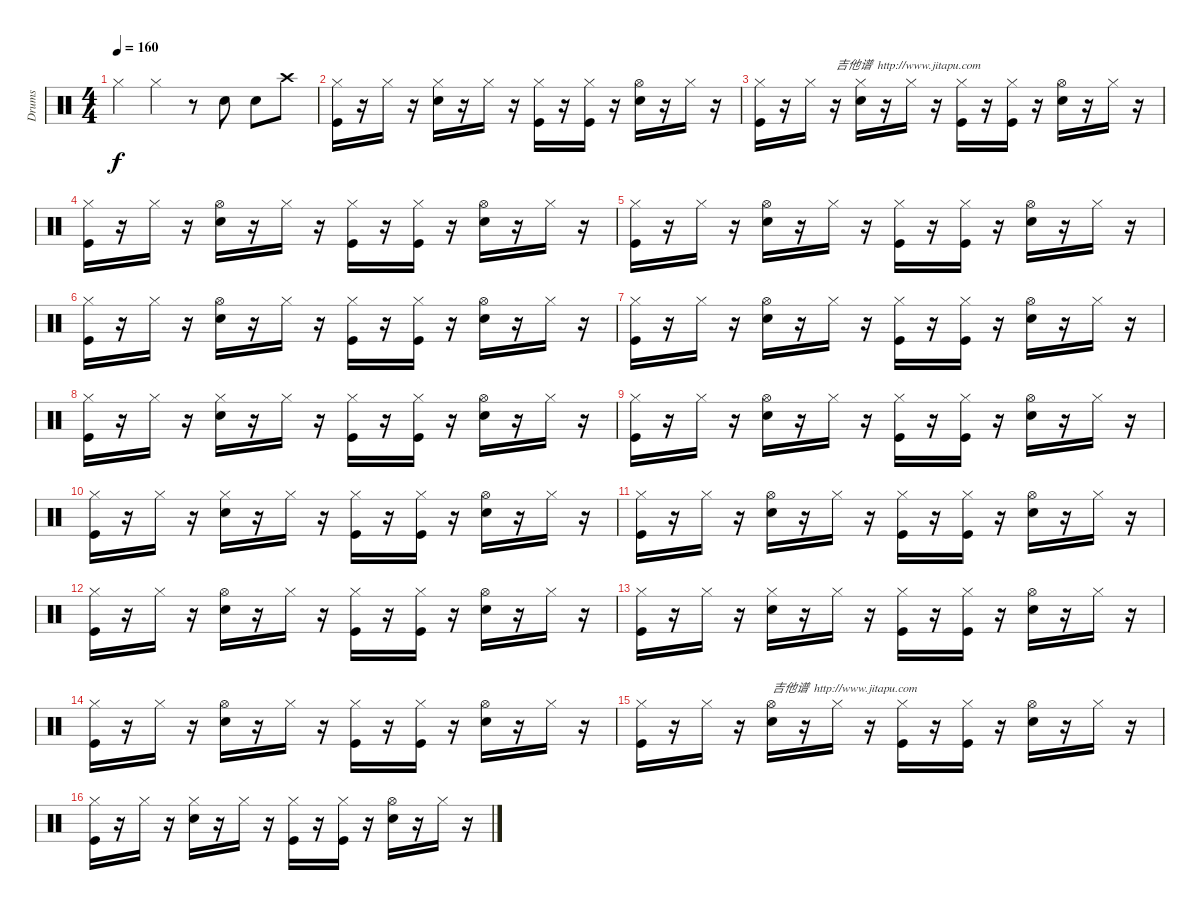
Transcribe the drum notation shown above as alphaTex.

\track ("Drums" "Drums") {instrument percussion}
\staff {score}
\articulation defaults
\ts (4 4)
\tempo 160
\clef neutral
\ks c "Hi-Hat (closed)".4{dy f} "Hi-Hat (closed)".4
r.8 "Snare (hit) 2".8 "Snare (hit) 2".8 "Crash high (hit)".8 |
("Hi-Hat (closed)" "Kick (hit)").16 r.16 "Hi-Hat (closed)".16 r.16 ("Hi-Hat (closed)" "Snare (hit) 2").16 r.16 "Hi-Hat (closed)".16 r.16 ("Hi-Hat (closed)" "Kick (hit)").16 r.16 ("Kick (hit)" "Hi-Hat (closed)").16 r.16 ("Hi-Hat (open)" "Snare (hit) 2").16 r.16 "Hi-Hat (closed)".16 r.16 |
("Hi-Hat (closed)" "Kick (hit)").16 r.16 "Hi-Hat (closed)".16 r.16{txt "吉他谱  http://www.jitapu.com"} ("Hi-Hat (closed)" "Snare (hit) 2").16 r.16 "Hi-Hat (closed)".16 r.16 ("Hi-Hat (closed)" "Kick (hit)").16 r.16 ("Kick (hit)" "Hi-Hat (closed)").16 r.16 ("Hi-Hat (open)" "Snare (hit) 2").16 r.16 "Hi-Hat (closed)".16 r.16 |
("Hi-Hat (closed)" "Kick (hit)").16 r.16 "Hi-Hat (closed)".16 r.16 ("Hi-Hat (open)" "Snare (hit) 2").16 r.16 "Hi-Hat (closed)".16 r.16 ("Hi-Hat (closed)" "Kick (hit)").16 r.16 ("Kick (hit)" "Hi-Hat (closed)").16 r.16 ("Hi-Hat (open)" "Snare (hit) 2").16 r.16 "Hi-Hat (closed)".16 r.16 |
("Hi-Hat (closed)" "Kick (hit)").16 r.16 "Hi-Hat (closed)".16 r.16 ("Hi-Hat (open)" "Snare (hit) 2").16 r.16 "Hi-Hat (closed)".16 r.16 ("Hi-Hat (closed)" "Kick (hit)").16 r.16 ("Kick (hit)" "Hi-Hat (closed)").16 r.16 ("Hi-Hat (open)" "Snare (hit) 2").16 r.16 "Hi-Hat (closed)".16 r.16 |
("Hi-Hat (closed)" "Kick (hit)").16 r.16 "Hi-Hat (closed)".16 r.16 ("Hi-Hat (open)" "Snare (hit) 2").16 r.16 "Hi-Hat (closed)".16 r.16 ("Hi-Hat (closed)" "Kick (hit)").16 r.16 ("Kick (hit)" "Hi-Hat (closed)").16 r.16 ("Hi-Hat (open)" "Snare (hit) 2").16 r.16 "Hi-Hat (closed)".16 r.16 |
("Hi-Hat (closed)" "Kick (hit)").16 r.16 "Hi-Hat (closed)".16 r.16 ("Hi-Hat (open)" "Snare (hit) 2").16 r.16 "Hi-Hat (closed)".16 r.16 ("Hi-Hat (closed)" "Kick (hit)").16 r.16 ("Kick (hit)" "Hi-Hat (closed)").16 r.16 ("Hi-Hat (open)" "Snare (hit) 2").16 r.16 "Hi-Hat (closed)".16 r.16 |
("Hi-Hat (closed)" "Kick (hit)").16 r.16 "Hi-Hat (closed)".16 r.16 ("Hi-Hat (closed)" "Snare (hit) 2").16 r.16 "Hi-Hat (closed)".16 r.16 ("Hi-Hat (closed)" "Kick (hit)").16 r.16 ("Kick (hit)" "Hi-Hat (closed)").16 r.16 ("Hi-Hat (open)" "Snare (hit) 2").16 r.16 "Hi-Hat (closed)".16 r.16 |
("Hi-Hat (closed)" "Kick (hit)").16 r.16 "Hi-Hat (closed)".16 r.16 ("Hi-Hat (open)" "Snare (hit) 2").16 r.16 "Hi-Hat (closed)".16 r.16 ("Hi-Hat (closed)" "Kick (hit)").16 r.16 ("Kick (hit)" "Hi-Hat (closed)").16 r.16 ("Hi-Hat (open)" "Snare (hit) 2").16 r.16 "Hi-Hat (closed)".16 r.16 |
("Hi-Hat (closed)" "Kick (hit)").16 r.16 "Hi-Hat (closed)".16 r.16 ("Hi-Hat (closed)" "Snare (hit) 2").16 r.16 "Hi-Hat (closed)".16 r.16 ("Hi-Hat (closed)" "Kick (hit)").16 r.16 ("Kick (hit)" "Hi-Hat (closed)").16 r.16 ("Hi-Hat (open)" "Snare (hit) 2").16 r.16 "Hi-Hat (closed)".16 r.16 |
("Hi-Hat (closed)" "Kick (hit)").16 r.16 "Hi-Hat (closed)".16 r.16 ("Hi-Hat (open)" "Snare (hit) 2").16 r.16 "Hi-Hat (closed)".16 r.16 ("Hi-Hat (closed)" "Kick (hit)").16 r.16 ("Kick (hit)" "Hi-Hat (closed)").16 r.16 ("Hi-Hat (open)" "Snare (hit) 2").16 r.16 "Hi-Hat (closed)".16 r.16 |
("Hi-Hat (closed)" "Kick (hit)").16 r.16 "Hi-Hat (closed)".16 r.16 ("Hi-Hat (open)" "Snare (hit) 2").16 r.16 "Hi-Hat (closed)".16 r.16 ("Hi-Hat (closed)" "Kick (hit)").16 r.16 ("Kick (hit)" "Hi-Hat (closed)").16 r.16 ("Hi-Hat (open)" "Snare (hit) 2").16 r.16 "Hi-Hat (closed)".16 r.16 |
("Hi-Hat (closed)" "Kick (hit)").16 r.16 "Hi-Hat (closed)".16 r.16 ("Hi-Hat (closed)" "Snare (hit) 2").16 r.16 "Hi-Hat (closed)".16 r.16 ("Hi-Hat (closed)" "Kick (hit)").16 r.16 ("Kick (hit)" "Hi-Hat (closed)").16 r.16 ("Hi-Hat (open)" "Snare (hit) 2").16 r.16 "Hi-Hat (closed)".16 r.16 |
("Hi-Hat (closed)" "Kick (hit)").16 r.16 "Hi-Hat (closed)".16 r.16 ("Hi-Hat (open)" "Snare (hit) 2").16 r.16 "Hi-Hat (closed)".16 r.16 ("Hi-Hat (closed)" "Kick (hit)").16 r.16 ("Kick (hit)" "Hi-Hat (closed)").16 r.16 ("Hi-Hat (open)" "Snare (hit) 2").16 r.16 "Hi-Hat (closed)".16 r.16 |
("Hi-Hat (closed)" "Kick (hit)").16 r.16 "Hi-Hat (closed)".16 r.16 ("Hi-Hat (open)" "Snare (hit) 2").16{txt "吉他谱  http://www.jitapu.com"} r.16 "Hi-Hat (closed)".16 r.16 ("Hi-Hat (closed)" "Kick (hit)").16 r.16 ("Kick (hit)" "Hi-Hat (closed)").16 r.16 ("Hi-Hat (open)" "Snare (hit) 2").16 r.16 "Hi-Hat (closed)".16 r.16 |
("Hi-Hat (closed)" "Kick (hit)").16 r.16 "Hi-Hat (closed)".16 r.16 ("Hi-Hat (closed)" "Snare (hit) 2").16 r.16 "Hi-Hat (closed)".16 r.16 ("Hi-Hat (closed)" "Kick (hit)").16 r.16 ("Kick (hit)" "Hi-Hat (closed)").16 r.16 ("Hi-Hat (open)" "Snare (hit) 2").16 r.16 "Hi-Hat (closed)".16 r.16
